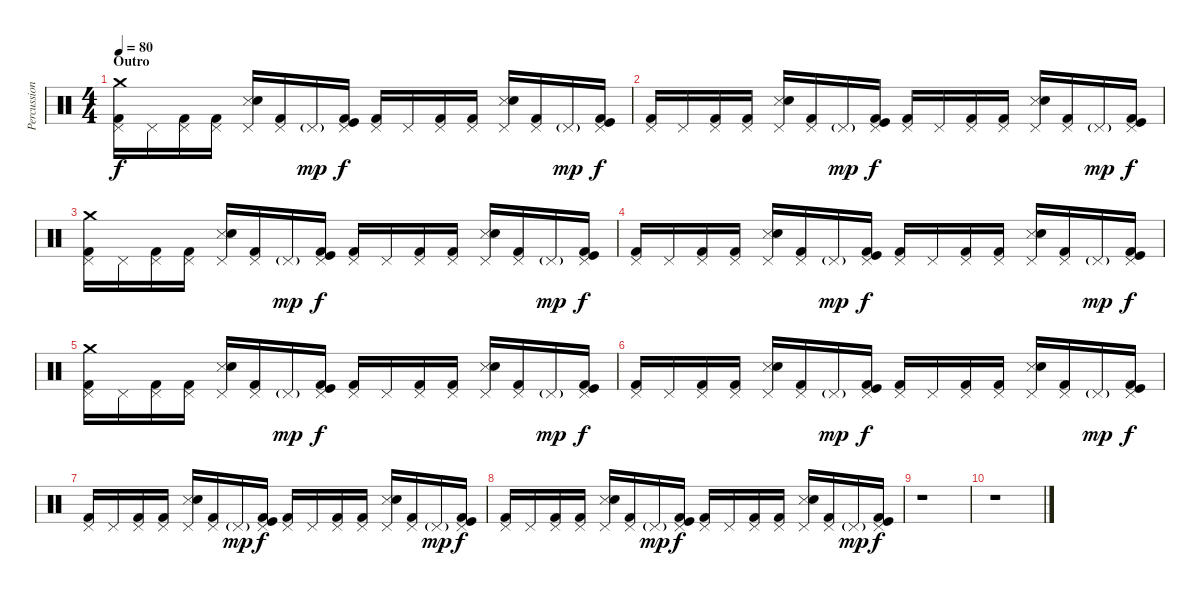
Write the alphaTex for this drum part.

\track ("Percussions" "Percussion") {instrument percussion}
\staff {score}
\articulation defaults
\ts (4 4)
\section ("" "Outro")
\tempo 80
\clef neutral
\ks c
("Crash medium (hit)" "Pedal Hi-Hat (hit)" "Kick (hit) 2").16{dy f} "Pedal Hi-Hat (hit)".16 ("Pedal Hi-Hat (hit)" "Kick (hit) 2").16 ("Pedal Hi-Hat (hit)" "Kick (hit) 2").16 ("Pedal Hi-Hat (hit)" "Snare (side stick) 3" "Electric Snare (hit)").16 ("Pedal Hi-Hat (hit)" "Kick (hit) 2").16 "Pedal Hi-Hat (hit)"{g}.16{dy mp} ("Pedal Hi-Hat (hit)" "Kick (hit) 2" "Kick (hit)").16{dy f} ("Pedal Hi-Hat (hit)" "Kick (hit) 2").16 "Pedal Hi-Hat (hit)".16 ("Pedal Hi-Hat (hit)" "Kick (hit) 2").16 ("Pedal Hi-Hat (hit)" "Kick (hit) 2").16 ("Pedal Hi-Hat (hit)" "Snare (side stick) 3" "Electric Snare (hit)").16 ("Pedal Hi-Hat (hit)" "Kick (hit) 2").16 "Pedal Hi-Hat (hit)"{g}.16{dy mp} ("Pedal Hi-Hat (hit)" "Kick (hit) 2" "Kick (hit)").16{dy f} |
("Pedal Hi-Hat (hit)" "Kick (hit) 2").16 "Pedal Hi-Hat (hit)".16 ("Pedal Hi-Hat (hit)" "Kick (hit) 2").16 ("Pedal Hi-Hat (hit)" "Kick (hit) 2").16 ("Pedal Hi-Hat (hit)" "Snare (side stick) 3" "Electric Snare (hit)").16 ("Pedal Hi-Hat (hit)" "Kick (hit) 2").16 "Pedal Hi-Hat (hit)"{g}.16{dy mp} ("Pedal Hi-Hat (hit)" "Kick (hit) 2" "Kick (hit)").16{dy f} ("Pedal Hi-Hat (hit)" "Kick (hit) 2").16 "Pedal Hi-Hat (hit)".16 ("Pedal Hi-Hat (hit)" "Kick (hit) 2").16 ("Pedal Hi-Hat (hit)" "Kick (hit) 2").16 ("Pedal Hi-Hat (hit)" "Snare (side stick) 3" "Electric Snare (hit)").16 ("Pedal Hi-Hat (hit)" "Kick (hit) 2").16 "Pedal Hi-Hat (hit)"{g}.16{dy mp} ("Pedal Hi-Hat (hit)" "Kick (hit) 2" "Kick (hit)").16{dy f} |
("Crash medium (hit)" "Pedal Hi-Hat (hit)" "Kick (hit) 2").16 "Pedal Hi-Hat (hit)".16 ("Pedal Hi-Hat (hit)" "Kick (hit) 2").16 ("Pedal Hi-Hat (hit)" "Kick (hit) 2").16 ("Pedal Hi-Hat (hit)" "Snare (side stick) 3" "Electric Snare (hit)").16 ("Pedal Hi-Hat (hit)" "Kick (hit) 2").16 "Pedal Hi-Hat (hit)"{g}.16{dy mp} ("Pedal Hi-Hat (hit)" "Kick (hit) 2" "Kick (hit)").16{dy f} ("Pedal Hi-Hat (hit)" "Kick (hit) 2").16 "Pedal Hi-Hat (hit)".16 ("Pedal Hi-Hat (hit)" "Kick (hit) 2").16 ("Pedal Hi-Hat (hit)" "Kick (hit) 2").16 ("Pedal Hi-Hat (hit)" "Snare (side stick) 3" "Electric Snare (hit)").16 ("Pedal Hi-Hat (hit)" "Kick (hit) 2").16 "Pedal Hi-Hat (hit)"{g}.16{dy mp} ("Pedal Hi-Hat (hit)" "Kick (hit) 2" "Kick (hit)").16{dy f} |
("Pedal Hi-Hat (hit)" "Kick (hit) 2").16 "Pedal Hi-Hat (hit)".16 ("Pedal Hi-Hat (hit)" "Kick (hit) 2").16 ("Pedal Hi-Hat (hit)" "Kick (hit) 2").16 ("Pedal Hi-Hat (hit)" "Snare (side stick) 3" "Electric Snare (hit)").16 ("Pedal Hi-Hat (hit)" "Kick (hit) 2").16 "Pedal Hi-Hat (hit)"{g}.16{dy mp} ("Pedal Hi-Hat (hit)" "Kick (hit) 2" "Kick (hit)").16{dy f} ("Pedal Hi-Hat (hit)" "Kick (hit) 2").16 "Pedal Hi-Hat (hit)".16 ("Pedal Hi-Hat (hit)" "Kick (hit) 2").16 ("Pedal Hi-Hat (hit)" "Kick (hit) 2").16 ("Pedal Hi-Hat (hit)" "Snare (side stick) 3" "Electric Snare (hit)").16 ("Pedal Hi-Hat (hit)" "Kick (hit) 2").16 "Pedal Hi-Hat (hit)"{g}.16{dy mp} ("Pedal Hi-Hat (hit)" "Kick (hit) 2" "Kick (hit)").16{dy f} |
("Crash medium (hit)" "Pedal Hi-Hat (hit)" "Kick (hit) 2").16 "Pedal Hi-Hat (hit)".16 ("Pedal Hi-Hat (hit)" "Kick (hit) 2").16 ("Pedal Hi-Hat (hit)" "Kick (hit) 2").16 ("Pedal Hi-Hat (hit)" "Snare (side stick) 3" "Electric Snare (hit)").16 ("Pedal Hi-Hat (hit)" "Kick (hit) 2").16 "Pedal Hi-Hat (hit)"{g}.16{dy mp} ("Pedal Hi-Hat (hit)" "Kick (hit) 2" "Kick (hit)").16{dy f} ("Pedal Hi-Hat (hit)" "Kick (hit) 2").16 "Pedal Hi-Hat (hit)".16 ("Pedal Hi-Hat (hit)" "Kick (hit) 2").16 ("Pedal Hi-Hat (hit)" "Kick (hit) 2").16 ("Pedal Hi-Hat (hit)" "Snare (side stick) 3" "Electric Snare (hit)").16 ("Pedal Hi-Hat (hit)" "Kick (hit) 2").16 "Pedal Hi-Hat (hit)"{g}.16{dy mp} ("Pedal Hi-Hat (hit)" "Kick (hit) 2" "Kick (hit)").16{dy f} |
("Pedal Hi-Hat (hit)" "Kick (hit) 2").16 "Pedal Hi-Hat (hit)".16 ("Pedal Hi-Hat (hit)" "Kick (hit) 2").16 ("Pedal Hi-Hat (hit)" "Kick (hit) 2").16 ("Pedal Hi-Hat (hit)" "Snare (side stick) 3" "Electric Snare (hit)").16 ("Pedal Hi-Hat (hit)" "Kick (hit) 2").16 "Pedal Hi-Hat (hit)"{g}.16{dy mp} ("Pedal Hi-Hat (hit)" "Kick (hit) 2" "Kick (hit)").16{dy f} ("Pedal Hi-Hat (hit)" "Kick (hit) 2").16 "Pedal Hi-Hat (hit)".16 ("Pedal Hi-Hat (hit)" "Kick (hit) 2").16 ("Pedal Hi-Hat (hit)" "Kick (hit) 2").16 ("Pedal Hi-Hat (hit)" "Snare (side stick) 3" "Electric Snare (hit)").16 ("Pedal Hi-Hat (hit)" "Kick (hit) 2").16 "Pedal Hi-Hat (hit)"{g}.16{dy mp} ("Pedal Hi-Hat (hit)" "Kick (hit) 2" "Kick (hit)").16{dy f} |
("Pedal Hi-Hat (hit)" "Kick (hit) 2").16 "Pedal Hi-Hat (hit)".16 ("Pedal Hi-Hat (hit)" "Kick (hit) 2").16 ("Pedal Hi-Hat (hit)" "Kick (hit) 2").16 ("Pedal Hi-Hat (hit)" "Snare (side stick) 3" "Electric Snare (hit)").16 ("Pedal Hi-Hat (hit)" "Kick (hit) 2").16 "Pedal Hi-Hat (hit)"{g}.16{dy mp} ("Pedal Hi-Hat (hit)" "Kick (hit) 2" "Kick (hit)").16{dy f} ("Pedal Hi-Hat (hit)" "Kick (hit) 2").16 "Pedal Hi-Hat (hit)".16 ("Pedal Hi-Hat (hit)" "Kick (hit) 2").16 ("Pedal Hi-Hat (hit)" "Kick (hit) 2").16 ("Pedal Hi-Hat (hit)" "Snare (side stick) 3" "Electric Snare (hit)").16 ("Pedal Hi-Hat (hit)" "Kick (hit) 2").16 "Pedal Hi-Hat (hit)"{g}.16{dy mp} ("Pedal Hi-Hat (hit)" "Kick (hit) 2" "Kick (hit)").16{dy f} |
("Pedal Hi-Hat (hit)" "Kick (hit) 2").16 "Pedal Hi-Hat (hit)".16 ("Pedal Hi-Hat (hit)" "Kick (hit) 2").16 ("Pedal Hi-Hat (hit)" "Kick (hit) 2").16 ("Pedal Hi-Hat (hit)" "Snare (side stick) 3" "Electric Snare (hit)").16 ("Pedal Hi-Hat (hit)" "Kick (hit) 2").16 "Pedal Hi-Hat (hit)"{g}.16{dy mp} ("Pedal Hi-Hat (hit)" "Kick (hit) 2" "Kick (hit)").16{dy f} ("Pedal Hi-Hat (hit)" "Kick (hit) 2").16 "Pedal Hi-Hat (hit)".16 ("Pedal Hi-Hat (hit)" "Kick (hit) 2").16 ("Pedal Hi-Hat (hit)" "Kick (hit) 2").16 ("Pedal Hi-Hat (hit)" "Snare (side stick) 3" "Electric Snare (hit)").16 ("Pedal Hi-Hat (hit)" "Kick (hit) 2").16 "Pedal Hi-Hat (hit)"{g}.16{dy mp} ("Pedal Hi-Hat (hit)" "Kick (hit) 2" "Kick (hit)").16{dy f} |
r.1 |
r.1
